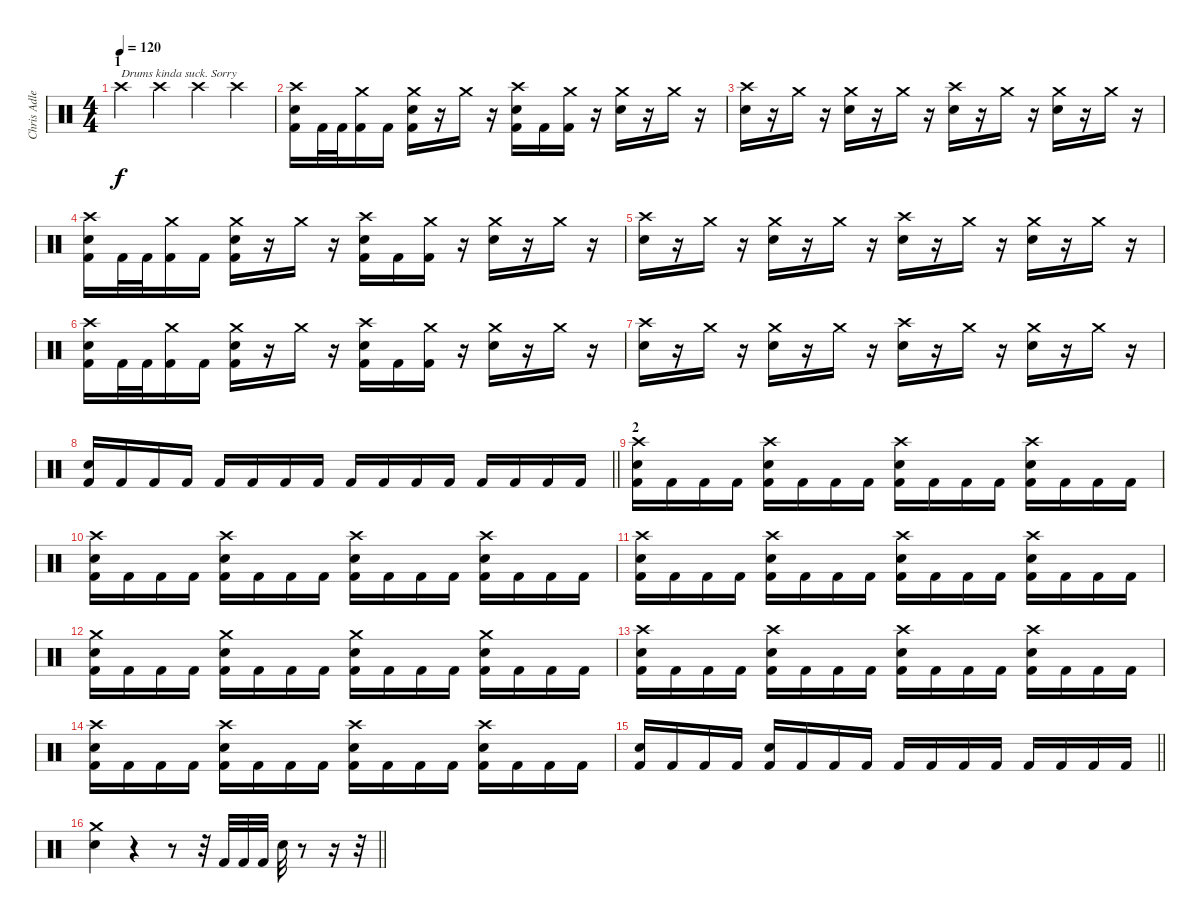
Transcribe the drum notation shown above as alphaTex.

\track ("Chris Adler" "Chris Adle") {instrument percussion}
\staff {score}
\articulation defaults
\ts (4 4)
\section ("" "1")
\tempo 120
\clef neutral
\ks c "Crash high (hit)".4{txt "Drums kinda suck. Sorry" dy f} "Crash high (hit)".4 "Crash high (hit)".4 "Crash high (hit)".4
|
("Crash high (hit)" "Electric Snare (hit)" "Kick (hit) 2").16 "Kick (hit) 2".32 "Kick (hit) 2".32 ("Crash medium (hit)" "Kick (hit) 2").16 "Kick (hit) 2".16 ("Crash medium (hit)" "Electric Snare (hit)" "Kick (hit) 2").16 r.16 "Crash medium (hit)".16 r.16 ("Crash high (hit)" "Electric Snare (hit)" "Kick (hit) 2").16 "Kick (hit) 2".16 ("Crash medium (hit)" "Kick (hit) 2").16 r.16 ("Crash medium (hit)" "Electric Snare (hit)").16 r.16 "Crash medium (hit)".16 r.16 |
("Crash high (hit)" "Electric Snare (hit)").16 r.16 "Crash medium (hit)".16 r.16 ("Crash medium (hit)" "Electric Snare (hit)").16 r.16 "Crash medium (hit)".16 r.16 ("Crash high (hit)" "Electric Snare (hit)").16 r.16 "Crash medium (hit)".16 r.16 ("Crash medium (hit)" "Electric Snare (hit)").16 r.16 "Crash medium (hit)".16 r.16 |
("Crash high (hit)" "Electric Snare (hit)" "Kick (hit) 2").16 "Kick (hit) 2".32 "Kick (hit) 2".32 ("Crash medium (hit)" "Kick (hit) 2").16 "Kick (hit) 2".16 ("Crash medium (hit)" "Electric Snare (hit)" "Kick (hit) 2").16 r.16 "Crash medium (hit)".16 r.16 ("Crash high (hit)" "Electric Snare (hit)" "Kick (hit) 2").16 "Kick (hit) 2".16 ("Crash medium (hit)" "Kick (hit) 2").16 r.16 ("Crash medium (hit)" "Electric Snare (hit)").16 r.16 "Crash medium (hit)".16 r.16 |
("Crash high (hit)" "Electric Snare (hit)").16 r.16 "Crash medium (hit)".16 r.16 ("Crash medium (hit)" "Electric Snare (hit)").16 r.16 "Crash medium (hit)".16 r.16 ("Crash high (hit)" "Electric Snare (hit)").16 r.16 "Crash medium (hit)".16 r.16 ("Crash medium (hit)" "Electric Snare (hit)").16 r.16 "Crash medium (hit)".16 r.16 |
("Crash high (hit)" "Electric Snare (hit)" "Kick (hit) 2").16 "Kick (hit) 2".32 "Kick (hit) 2".32 ("Crash medium (hit)" "Kick (hit) 2").16 "Kick (hit) 2".16 ("Crash medium (hit)" "Electric Snare (hit)" "Kick (hit) 2").16 r.16 "Crash medium (hit)".16 r.16 ("Crash high (hit)" "Electric Snare (hit)" "Kick (hit) 2").16 "Kick (hit) 2".16 ("Crash medium (hit)" "Kick (hit) 2").16 r.16 ("Crash medium (hit)" "Electric Snare (hit)").16 r.16 "Crash medium (hit)".16 r.16 |
("Crash high (hit)" "Electric Snare (hit)").16 r.16 "Crash medium (hit)".16 r.16 ("Crash medium (hit)" "Electric Snare (hit)").16 r.16 "Crash medium (hit)".16 r.16 ("Crash high (hit)" "Electric Snare (hit)").16 r.16 "Crash medium (hit)".16 r.16 ("Crash medium (hit)" "Electric Snare (hit)").16 r.16 "Crash medium (hit)".16 r.16 |
\barLineRight lightlight
("Electric Snare (hit)" "Kick (hit) 2").16 "Kick (hit) 2".16 "Kick (hit) 2".16 "Kick (hit) 2".16 "Kick (hit) 2".16 "Kick (hit) 2".16 "Kick (hit) 2".16 "Kick (hit) 2".16 "Kick (hit) 2".16 "Kick (hit) 2".16 "Kick (hit) 2".16 "Kick (hit) 2".16 "Kick (hit) 2".16 "Kick (hit) 2".16 "Kick (hit) 2".16 "Kick (hit) 2".16 |
\section ("" "2")
("Crash high (hit)" "Electric Snare (hit)" "Kick (hit) 2").16 "Kick (hit) 2".16 "Kick (hit) 2".16 "Kick (hit) 2".16 ("Crash high (hit)" "Electric Snare (hit)" "Kick (hit) 2").16 "Kick (hit) 2".16 "Kick (hit) 2".16 "Kick (hit) 2".16 ("Crash high (hit)" "Electric Snare (hit)" "Kick (hit) 2").16 "Kick (hit) 2".16 "Kick (hit) 2".16 "Kick (hit) 2".16 ("Crash high (hit)" "Electric Snare (hit)" "Kick (hit) 2").16 "Kick (hit) 2".16 "Kick (hit) 2".16 "Kick (hit) 2".16 |
("Crash high (hit)" "Electric Snare (hit)" "Kick (hit) 2").16 "Kick (hit) 2".16 "Kick (hit) 2".16 "Kick (hit) 2".16 ("Crash high (hit)" "Electric Snare (hit)" "Kick (hit) 2").16 "Kick (hit) 2".16 "Kick (hit) 2".16 "Kick (hit) 2".16 ("Crash high (hit)" "Electric Snare (hit)" "Kick (hit) 2").16 "Kick (hit) 2".16 "Kick (hit) 2".16 "Kick (hit) 2".16 ("Crash high (hit)" "Electric Snare (hit)" "Kick (hit) 2").16 "Kick (hit) 2".16 "Kick (hit) 2".16 "Kick (hit) 2".16 |
("Crash high (hit)" "Electric Snare (hit)" "Kick (hit) 2").16 "Kick (hit) 2".16 "Kick (hit) 2".16 "Kick (hit) 2".16 ("Crash high (hit)" "Electric Snare (hit)" "Kick (hit) 2").16 "Kick (hit) 2".16 "Kick (hit) 2".16 "Kick (hit) 2".16 ("Crash high (hit)" "Electric Snare (hit)" "Kick (hit) 2").16 "Kick (hit) 2".16 "Kick (hit) 2".16 "Kick (hit) 2".16 ("Crash high (hit)" "Electric Snare (hit)" "Kick (hit) 2").16 "Kick (hit) 2".16 "Kick (hit) 2".16 "Kick (hit) 2".16 |
("Crash medium (hit)" "Electric Snare (hit)" "Kick (hit) 2").16 "Kick (hit) 2".16 "Kick (hit) 2".16 "Kick (hit) 2".16 ("Crash medium (hit)" "Electric Snare (hit)" "Kick (hit) 2").16 "Kick (hit) 2".16 "Kick (hit) 2".16 "Kick (hit) 2".16 ("Crash medium (hit)" "Electric Snare (hit)" "Kick (hit) 2").16 "Kick (hit) 2".16 "Kick (hit) 2".16 "Kick (hit) 2".16 ("Crash medium (hit)" "Electric Snare (hit)" "Kick (hit) 2").16 "Kick (hit) 2".16 "Kick (hit) 2".16 "Kick (hit) 2".16 |
("Crash high (hit)" "Electric Snare (hit)" "Kick (hit) 2").16 "Kick (hit) 2".16 "Kick (hit) 2".16 "Kick (hit) 2".16 ("Crash high (hit)" "Electric Snare (hit)" "Kick (hit) 2").16 "Kick (hit) 2".16 "Kick (hit) 2".16 "Kick (hit) 2".16 ("Crash high (hit)" "Electric Snare (hit)" "Kick (hit) 2").16 "Kick (hit) 2".16 "Kick (hit) 2".16 "Kick (hit) 2".16 ("Crash high (hit)" "Electric Snare (hit)" "Kick (hit) 2").16 "Kick (hit) 2".16 "Kick (hit) 2".16 "Kick (hit) 2".16 |
("Crash high (hit)" "Electric Snare (hit)" "Kick (hit) 2").16 "Kick (hit) 2".16 "Kick (hit) 2".16 "Kick (hit) 2".16 ("Crash high (hit)" "Electric Snare (hit)" "Kick (hit) 2").16 "Kick (hit) 2".16 "Kick (hit) 2".16 "Kick (hit) 2".16 ("Crash high (hit)" "Electric Snare (hit)" "Kick (hit) 2").16 "Kick (hit) 2".16 "Kick (hit) 2".16 "Kick (hit) 2".16 ("Crash high (hit)" "Electric Snare (hit)" "Kick (hit) 2").16 "Kick (hit) 2".16 "Kick (hit) 2".16 "Kick (hit) 2".16 |
\barLineRight lightlight
("Electric Snare (hit)" "Kick (hit) 2").16 "Kick (hit) 2".16 "Kick (hit) 2".16 "Kick (hit) 2".16 ("Electric Snare (hit)" "Kick (hit) 2").16 "Kick (hit) 2".16 "Kick (hit) 2".16 "Kick (hit) 2".16 "Kick (hit) 2".16 "Kick (hit) 2".16 "Kick (hit) 2".16 "Kick (hit) 2".16 "Kick (hit) 2".16 "Kick (hit) 2".16 "Kick (hit) 2".16 "Kick (hit) 2".16 |
\barLineRight lightlight
("Crash medium (hit)" "Electric Snare (hit)").4 r.4 r.8 r.32 "Kick (hit) 2".32 "Kick (hit) 2".32 "Kick (hit) 2".32 "Electric Snare (hit)".32 r.8 r.16 r.32
